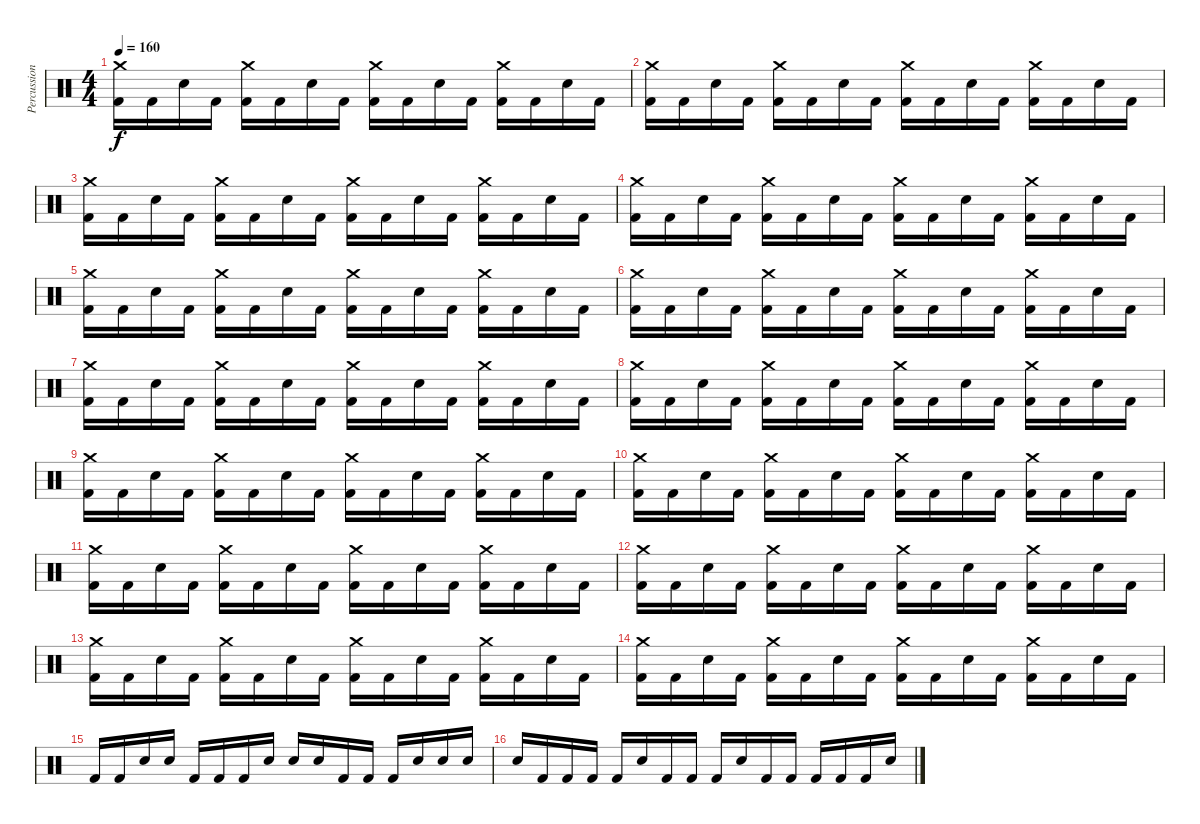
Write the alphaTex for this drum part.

\track ("Percussion" "Percussion") {instrument percussion}
\staff {score}
\articulation defaults
\ts (4 4)
\tempo 160
\clef neutral
\ks c
("Kick (hit) 2" "Crash medium (hit)").16{dy f} "Kick (hit) 2".16 "Electric Snare (hit)".16 "Kick (hit) 2".16 ("Kick (hit) 2" "Crash medium (hit)").16 "Kick (hit) 2".16 "Electric Snare (hit)".16 "Kick (hit) 2".16 ("Kick (hit) 2" "Crash medium (hit)").16 "Kick (hit) 2".16 "Electric Snare (hit)".16 "Kick (hit) 2".16 ("Kick (hit) 2" "Crash medium (hit)").16 "Kick (hit) 2".16 "Electric Snare (hit)".16 "Kick (hit) 2".16 |
("Kick (hit) 2" "Crash medium (hit)").16 "Kick (hit) 2".16 "Electric Snare (hit)".16 "Kick (hit) 2".16 ("Kick (hit) 2" "Crash medium (hit)").16 "Kick (hit) 2".16 "Electric Snare (hit)".16 "Kick (hit) 2".16 ("Kick (hit) 2" "Crash medium (hit)").16 "Kick (hit) 2".16 "Electric Snare (hit)".16 "Kick (hit) 2".16 ("Kick (hit) 2" "Crash medium (hit)").16 "Kick (hit) 2".16 "Electric Snare (hit)".16 "Kick (hit) 2".16 |
("Kick (hit) 2" "Crash medium (hit)").16 "Kick (hit) 2".16 "Electric Snare (hit)".16 "Kick (hit) 2".16 ("Kick (hit) 2" "Crash medium (hit)").16 "Kick (hit) 2".16 "Electric Snare (hit)".16 "Kick (hit) 2".16 ("Kick (hit) 2" "Crash medium (hit)").16 "Kick (hit) 2".16 "Electric Snare (hit)".16 "Kick (hit) 2".16 ("Kick (hit) 2" "Crash medium (hit)").16 "Kick (hit) 2".16 "Electric Snare (hit)".16 "Kick (hit) 2".16 |
("Kick (hit) 2" "Crash medium (hit)").16 "Kick (hit) 2".16 "Electric Snare (hit)".16 "Kick (hit) 2".16 ("Kick (hit) 2" "Crash medium (hit)").16 "Kick (hit) 2".16 "Electric Snare (hit)".16 "Kick (hit) 2".16 ("Kick (hit) 2" "Crash medium (hit)").16 "Kick (hit) 2".16 "Electric Snare (hit)".16 "Kick (hit) 2".16 ("Kick (hit) 2" "Crash medium (hit)").16 "Kick (hit) 2".16 "Electric Snare (hit)".16 "Kick (hit) 2".16 |
("Kick (hit) 2" "Crash medium (hit)").16 "Kick (hit) 2".16 "Electric Snare (hit)".16 "Kick (hit) 2".16 ("Kick (hit) 2" "Crash medium (hit)").16 "Kick (hit) 2".16 "Electric Snare (hit)".16 "Kick (hit) 2".16 ("Kick (hit) 2" "Crash medium (hit)").16 "Kick (hit) 2".16 "Electric Snare (hit)".16 "Kick (hit) 2".16 ("Kick (hit) 2" "Crash medium (hit)").16 "Kick (hit) 2".16 "Electric Snare (hit)".16 "Kick (hit) 2".16 |
("Kick (hit) 2" "Crash medium (hit)").16 "Kick (hit) 2".16 "Electric Snare (hit)".16 "Kick (hit) 2".16 ("Kick (hit) 2" "Crash medium (hit)").16 "Kick (hit) 2".16 "Electric Snare (hit)".16 "Kick (hit) 2".16 ("Kick (hit) 2" "Crash medium (hit)").16 "Kick (hit) 2".16 "Electric Snare (hit)".16 "Kick (hit) 2".16 ("Kick (hit) 2" "Crash medium (hit)").16 "Kick (hit) 2".16 "Electric Snare (hit)".16 "Kick (hit) 2".16 |
("Kick (hit) 2" "Crash medium (hit)").16 "Kick (hit) 2".16 "Electric Snare (hit)".16 "Kick (hit) 2".16 ("Kick (hit) 2" "Crash medium (hit)").16 "Kick (hit) 2".16 "Electric Snare (hit)".16 "Kick (hit) 2".16 ("Kick (hit) 2" "Crash medium (hit)").16 "Kick (hit) 2".16 "Electric Snare (hit)".16 "Kick (hit) 2".16 ("Kick (hit) 2" "Crash medium (hit)").16 "Kick (hit) 2".16 "Electric Snare (hit)".16 "Kick (hit) 2".16 |
("Kick (hit) 2" "Crash medium (hit)").16 "Kick (hit) 2".16 "Electric Snare (hit)".16 "Kick (hit) 2".16 ("Kick (hit) 2" "Crash medium (hit)").16 "Kick (hit) 2".16 "Electric Snare (hit)".16 "Kick (hit) 2".16 ("Kick (hit) 2" "Crash medium (hit)").16 "Kick (hit) 2".16 "Electric Snare (hit)".16 "Kick (hit) 2".16 ("Kick (hit) 2" "Crash medium (hit)").16 "Kick (hit) 2".16 "Electric Snare (hit)".16 "Kick (hit) 2".16 |
("Kick (hit) 2" "Crash medium (hit)").16 "Kick (hit) 2".16 "Electric Snare (hit)".16 "Kick (hit) 2".16 ("Kick (hit) 2" "Crash medium (hit)").16 "Kick (hit) 2".16 "Electric Snare (hit)".16 "Kick (hit) 2".16 ("Kick (hit) 2" "Crash medium (hit)").16 "Kick (hit) 2".16 "Electric Snare (hit)".16 "Kick (hit) 2".16 ("Kick (hit) 2" "Crash medium (hit)").16 "Kick (hit) 2".16 "Electric Snare (hit)".16 "Kick (hit) 2".16 |
("Kick (hit) 2" "Crash medium (hit)").16 "Kick (hit) 2".16 "Electric Snare (hit)".16 "Kick (hit) 2".16 ("Kick (hit) 2" "Crash medium (hit)").16 "Kick (hit) 2".16 "Electric Snare (hit)".16 "Kick (hit) 2".16 ("Kick (hit) 2" "Crash medium (hit)").16 "Kick (hit) 2".16 "Electric Snare (hit)".16 "Kick (hit) 2".16 ("Kick (hit) 2" "Crash medium (hit)").16 "Kick (hit) 2".16 "Electric Snare (hit)".16 "Kick (hit) 2".16 |
("Kick (hit) 2" "Crash medium (hit)").16 "Kick (hit) 2".16 "Electric Snare (hit)".16 "Kick (hit) 2".16 ("Kick (hit) 2" "Crash medium (hit)").16 "Kick (hit) 2".16 "Electric Snare (hit)".16 "Kick (hit) 2".16 ("Kick (hit) 2" "Crash medium (hit)").16 "Kick (hit) 2".16 "Electric Snare (hit)".16 "Kick (hit) 2".16 ("Kick (hit) 2" "Crash medium (hit)").16 "Kick (hit) 2".16 "Electric Snare (hit)".16 "Kick (hit) 2".16 |
("Kick (hit) 2" "Crash medium (hit)").16 "Kick (hit) 2".16 "Electric Snare (hit)".16 "Kick (hit) 2".16 ("Kick (hit) 2" "Crash medium (hit)").16 "Kick (hit) 2".16 "Electric Snare (hit)".16 "Kick (hit) 2".16 ("Kick (hit) 2" "Crash medium (hit)").16 "Kick (hit) 2".16 "Electric Snare (hit)".16 "Kick (hit) 2".16 ("Kick (hit) 2" "Crash medium (hit)").16 "Kick (hit) 2".16 "Electric Snare (hit)".16 "Kick (hit) 2".16 |
("Kick (hit) 2" "Crash medium (hit)").16 "Kick (hit) 2".16 "Electric Snare (hit)".16 "Kick (hit) 2".16 ("Kick (hit) 2" "Crash medium (hit)").16 "Kick (hit) 2".16 "Electric Snare (hit)".16 "Kick (hit) 2".16 ("Kick (hit) 2" "Crash medium (hit)").16 "Kick (hit) 2".16 "Electric Snare (hit)".16 "Kick (hit) 2".16 ("Kick (hit) 2" "Crash medium (hit)").16 "Kick (hit) 2".16 "Electric Snare (hit)".16 "Kick (hit) 2".16 |
("Kick (hit) 2" "Crash medium (hit)").16 "Kick (hit) 2".16 "Electric Snare (hit)".16 "Kick (hit) 2".16 ("Kick (hit) 2" "Crash medium (hit)").16 "Kick (hit) 2".16 "Electric Snare (hit)".16 "Kick (hit) 2".16 ("Kick (hit) 2" "Crash medium (hit)").16 "Kick (hit) 2".16 "Electric Snare (hit)".16 "Kick (hit) 2".16 ("Kick (hit) 2" "Crash medium (hit)").16 "Kick (hit) 2".16 "Electric Snare (hit)".16 "Kick (hit) 2".16 |
"Kick (hit) 2".16 "Kick (hit) 2".16 "Electric Snare (hit)".16 "Electric Snare (hit)".16 "Kick (hit) 2".16 "Kick (hit) 2".16 "Kick (hit) 2".16 "Electric Snare (hit)".16 "Electric Snare (hit)".16 "Electric Snare (hit)".16 "Kick (hit) 2".16 "Kick (hit) 2".16 "Kick (hit) 2".16 "Electric Snare (hit)".16 "Electric Snare (hit)".16 "Electric Snare (hit)".16 |
"Electric Snare (hit)".16 "Kick (hit) 2".16 "Kick (hit) 2".16 "Kick (hit) 2".16 "Kick (hit) 2".16 "Electric Snare (hit)".16 "Kick (hit) 2".16 "Kick (hit) 2".16 "Kick (hit) 2".16 "Electric Snare (hit)".16 "Kick (hit) 2".16 "Kick (hit) 2".16 "Kick (hit) 2".16 "Kick (hit) 2".16 "Kick (hit) 2".16 "Electric Snare (hit)".16
